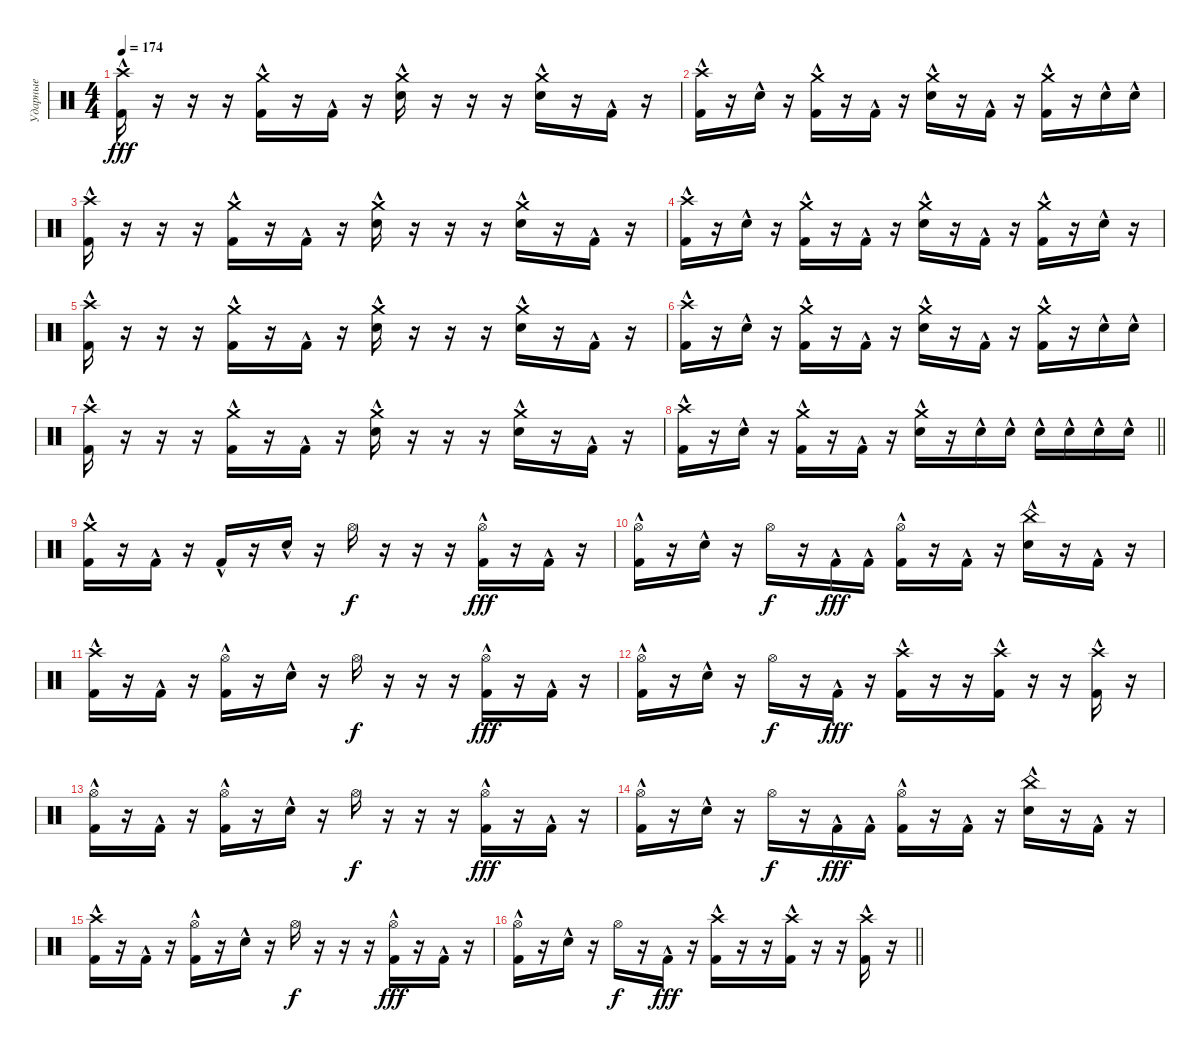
\track ("Ударные" "Ударные") {instrument percussion}
\staff {score}
\articulation defaults
\ts (4 4)
\tempo 174
\clef neutral
\ks c
("Crash high (hit)" "Kick (hit) 2"{hac}).16{dy fff} r.16 r.16 r.16 ("Crash medium (hit)" "Kick (hit) 2"{hac}).16 r.16 "Kick (hit) 2"{hac}.16 r.16 ("Crash medium (hit)" "Snare (hit) 2"{hac}).16 r.16 r.16 r.16 ("Crash medium (hit)" "Snare (hit) 2"{hac}).16 r.16 "Kick (hit) 2"{hac}.16 r.16 |
("Crash high (hit)" "Kick (hit) 2"{hac}).16 r.16 "Snare (hit) 2"{hac}.16 r.16 ("Crash medium (hit)" "Kick (hit) 2"{hac}).16 r.16 "Kick (hit) 2"{hac}.16 r.16 ("Crash medium (hit)" "Snare (hit) 2"{hac}).16 r.16 "Kick (hit) 2"{hac}.16 r.16 ("Crash medium (hit)" "Kick (hit) 2"{hac}).16 r.16 "Snare (hit) 2"{hac}.16 "Snare (hit) 2"{hac}.16 |
("Crash high (hit)" "Kick (hit) 2"{hac}).16 r.16 r.16 r.16 ("Crash medium (hit)" "Kick (hit) 2"{hac}).16 r.16 "Kick (hit) 2"{hac}.16 r.16 ("Crash medium (hit)" "Snare (hit) 2"{hac}).16 r.16 r.16 r.16 ("Crash medium (hit)" "Snare (hit) 2"{hac}).16 r.16 "Kick (hit) 2"{hac}.16 r.16 |
("Crash high (hit)" "Kick (hit) 2"{hac}).16 r.16 "Snare (hit) 2"{hac}.16 r.16 ("Crash medium (hit)" "Kick (hit) 2"{hac}).16 r.16 "Kick (hit) 2"{hac}.16 r.16 ("Crash medium (hit)" "Snare (hit) 2"{hac}).16 r.16 "Kick (hit) 2"{hac}.16 r.16 ("Crash medium (hit)" "Kick (hit) 2"{hac}).16 r.16 "Snare (hit) 2"{hac}.16 r.16 |
("Crash high (hit)" "Kick (hit) 2"{hac}).16 r.16 r.16 r.16 ("Crash medium (hit)" "Kick (hit) 2"{hac}).16 r.16 "Kick (hit) 2"{hac}.16 r.16 ("Crash medium (hit)" "Snare (hit) 2"{hac}).16 r.16 r.16 r.16 ("Crash medium (hit)" "Snare (hit) 2"{hac}).16 r.16 "Kick (hit) 2"{hac}.16 r.16 |
("Crash high (hit)" "Kick (hit) 2"{hac}).16 r.16 "Snare (hit) 2"{hac}.16 r.16 ("Crash medium (hit)" "Kick (hit) 2"{hac}).16 r.16 "Kick (hit) 2"{hac}.16 r.16 ("Crash medium (hit)" "Snare (hit) 2"{hac}).16 r.16 "Kick (hit) 2"{hac}.16 r.16 ("Crash medium (hit)" "Kick (hit) 2"{hac}).16 r.16 "Snare (hit) 2"{hac}.16 "Snare (hit) 2"{hac}.16 |
("Crash high (hit)" "Kick (hit) 2"{hac}).16 r.16 r.16 r.16 ("Crash medium (hit)" "Kick (hit) 2"{hac}).16 r.16 "Kick (hit) 2"{hac}.16 r.16 ("Crash medium (hit)" "Snare (hit) 2"{hac}).16 r.16 r.16 r.16 ("Crash medium (hit)" "Snare (hit) 2"{hac}).16 r.16 "Kick (hit) 2"{hac}.16 r.16 |
\barLineRight lightlight
("Crash high (hit)" "Kick (hit) 2"{hac}).16 r.16 "Snare (hit) 2"{hac}.16 r.16 ("Crash medium (hit)" "Kick (hit) 2"{hac}).16 r.16 "Kick (hit) 2"{hac}.16 r.16 ("Crash medium (hit)" "Snare (hit) 2"{hac}).16 r.16 "Snare (hit) 2"{hac}.16 "Snare (hit) 2"{hac}.16 "Snare (hit) 2"{hac}.16 "Snare (hit) 2"{hac}.16 "Snare (hit) 2"{hac}.16 "Snare (hit) 2"{hac}.16 |
\section ("" "")
("Kick (hit) 2"{hac} "Crash medium (hit)").16 r.16 "Kick (hit) 2"{hac}.16 r.16 "Kick (hit) 2"{hac}.16 r.16 "Snare (hit) 2"{hac}.16 r.16 "Hi-Hat (open)".16{dy f} r.16 r.16 r.16 ("Hi-Hat (open)" "Kick (hit) 2"{hac}).16{dy fff} r.16 "Kick (hit) 2"{hac}.16 r.16 |
("Kick (hit) 2"{hac} "Hi-Hat (open)").16 r.16 "Snare (hit) 2"{hac}.16 r.16 "Hi-Hat (open)".16{dy f} r.16 "Kick (hit) 2"{hac}.16{dy fff} "Kick (hit) 2"{hac}.16 ("Hi-Hat (open)" "Kick (hit) 2"{hac}).16 r.16 "Kick (hit) 2"{hac}.16 r.16 ("China (hit)" "Snare (hit) 2"{hac}).16 r.16 "Kick (hit) 2"{hac}.16 r.16 |
("Kick (hit) 2"{hac} "Crash high (hit)").16 r.16 "Kick (hit) 2"{hac}.16 r.16 ("Kick (hit) 2"{hac} "Hi-Hat (open)").16 r.16 "Snare (hit) 2"{hac}.16 r.16 "Hi-Hat (open)".16{dy f} r.16 r.16 r.16 ("Hi-Hat (open)" "Kick (hit) 2"{hac}).16{dy fff} r.16 "Kick (hit) 2"{hac}.16 r.16 |
("Kick (hit) 2"{hac} "Hi-Hat (open)").16 r.16 "Snare (hit) 2"{hac}.16 r.16 "Hi-Hat (open)".16{dy f} r.16 "Kick (hit) 2"{hac}.16{dy fff} r.16 ("Crash high (hit)" "Kick (hit) 2"{hac}).16 r.16 r.16 ("Kick (hit) 2"{hac} "Crash high (hit)").16 r.16 r.16 ("Kick (hit) 2"{hac} "Crash high (hit)").16 r.16 |
("Kick (hit) 2"{hac} "Hi-Hat (open)").16 r.16 "Kick (hit) 2"{hac}.16 r.16 ("Kick (hit) 2"{hac} "Hi-Hat (open)").16 r.16 "Snare (hit) 2"{hac}.16 r.16 "Hi-Hat (open)".16{dy f} r.16 r.16 r.16 ("Hi-Hat (open)" "Kick (hit) 2"{hac}).16{dy fff} r.16 "Kick (hit) 2"{hac}.16 r.16 |
("Kick (hit) 2"{hac} "Hi-Hat (open)").16 r.16 "Snare (hit) 2"{hac}.16 r.16 "Hi-Hat (open)".16{dy f} r.16 "Kick (hit) 2"{hac}.16{dy fff} "Kick (hit) 2"{hac}.16 ("Hi-Hat (open)" "Kick (hit) 2"{hac}).16 r.16 "Kick (hit) 2"{hac}.16 r.16 ("China (hit)" "Snare (hit) 2"{hac}).16 r.16 "Kick (hit) 2"{hac}.16 r.16 |
("Kick (hit) 2"{hac} "Crash high (hit)").16 r.16 "Kick (hit) 2"{hac}.16 r.16 ("Kick (hit) 2"{hac} "Hi-Hat (open)").16 r.16 "Snare (hit) 2"{hac}.16 r.16 "Hi-Hat (open)".16{dy f} r.16 r.16 r.16 ("Hi-Hat (open)" "Kick (hit) 2"{hac}).16{dy fff} r.16 "Kick (hit) 2"{hac}.16 r.16 |
\barLineRight lightlight
("Kick (hit) 2"{hac} "Hi-Hat (open)").16 r.16 "Snare (hit) 2"{hac}.16 r.16 "Hi-Hat (open)".16{dy f} r.16 "Kick (hit) 2"{hac}.16{dy fff} r.16 ("Crash high (hit)" "Kick (hit) 2"{hac}).16 r.16 r.16 ("Kick (hit) 2"{hac} "Crash high (hit)").16 r.16 r.16 ("Kick (hit) 2"{hac} "Crash high (hit)").16 r.16
